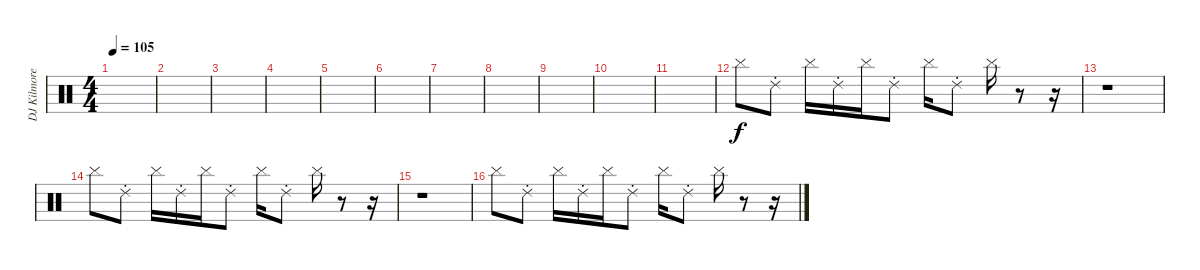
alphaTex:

\track ("DJ Kilmore" "DJ Kilmore") {instrument percussion}
\staff {score}
\articulation defaults
\ts (4 4)
\tempo 105
\clef neutral
\ks c
|
|
|
|
|
|
|
|
|
|
|
"Cymbal (hit)".8 "Ride (choke) 2".8 "Cymbal (hit)".16 "Ride (choke) 2".16 "Cymbal (hit)".16 "Ride (choke) 2".8 "Cymbal (hit)".16 "Ride (choke) 2".8 "Cymbal (hit)".16 r.8 r.16 |
r.1 |
"Cymbal (hit)".8 "Ride (choke) 2".8 "Cymbal (hit)".16 "Ride (choke) 2".16 "Cymbal (hit)".16 "Ride (choke) 2".8 "Cymbal (hit)".16 "Ride (choke) 2".8 "Cymbal (hit)".16 r.8 r.16 |
r.1 |
"Cymbal (hit)".8 "Ride (choke) 2".8 "Cymbal (hit)".16 "Ride (choke) 2".16 "Cymbal (hit)".16 "Ride (choke) 2".8 "Cymbal (hit)".16 "Ride (choke) 2".8 "Cymbal (hit)".16 r.8 r.16
